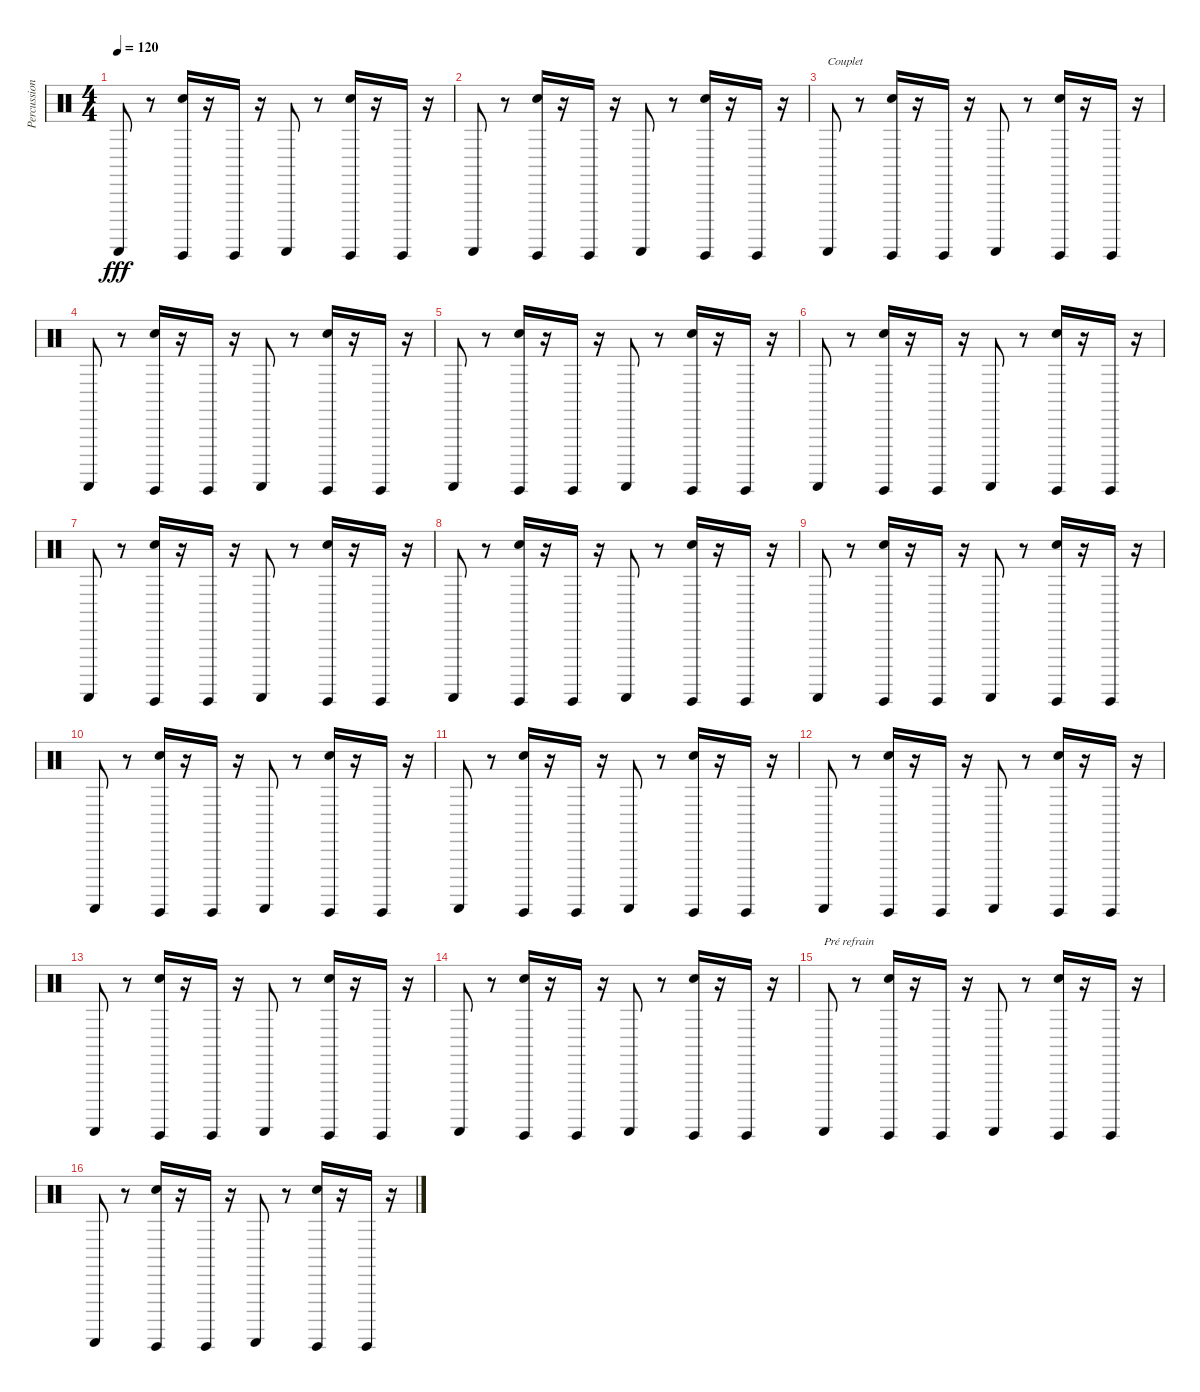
\track ("Percussions" "Percussion") {instrument percussion}
\staff {score}
\articulation defaults
\ts (4 4)
\tempo 120
\clef neutral
\ks c "Guiro (scrap-return)".8{dy fff}
r.8 ("Guiro (hit)" "Hand Clap (hit)").16 r.16 "Guiro (hit)".16 r.16 "Guiro (scrap-return)".8 r.8 ("Guiro (hit)" "Hand Clap (hit)").16 r.16 "Guiro (hit)".16 r.16 |
"Guiro (scrap-return)".8 r.8 ("Guiro (hit)" "Hand Clap (hit)").16 r.16 "Guiro (hit)".16 r.16 "Guiro (scrap-return)".8 r.8 ("Guiro (hit)" "Hand Clap (hit)").16 r.16 "Guiro (hit)".16 r.16 |
"Guiro (scrap-return)".8{txt "Couplet"} r.8 ("Guiro (hit)" "Hand Clap (hit)").16 r.16 "Guiro (hit)".16 r.16 "Guiro (scrap-return)".8 r.8 ("Guiro (hit)" "Hand Clap (hit)").16 r.16 "Guiro (hit)".16 r.16 |
"Guiro (scrap-return)".8 r.8 ("Guiro (hit)" "Hand Clap (hit)").16 r.16 "Guiro (hit)".16 r.16 "Guiro (scrap-return)".8 r.8 ("Guiro (hit)" "Hand Clap (hit)").16 r.16 "Guiro (hit)".16 r.16 |
"Guiro (scrap-return)".8 r.8 ("Guiro (hit)" "Hand Clap (hit)").16 r.16 "Guiro (hit)".16 r.16 "Guiro (scrap-return)".8 r.8 ("Guiro (hit)" "Hand Clap (hit)").16 r.16 "Guiro (hit)".16 r.16 |
"Guiro (scrap-return)".8 r.8 ("Guiro (hit)" "Hand Clap (hit)").16 r.16 "Guiro (hit)".16 r.16 "Guiro (scrap-return)".8 r.8 ("Guiro (hit)" "Hand Clap (hit)").16 r.16 "Guiro (hit)".16 r.16 |
"Guiro (scrap-return)".8 r.8 ("Guiro (hit)" "Hand Clap (hit)").16 r.16 "Guiro (hit)".16 r.16 "Guiro (scrap-return)".8 r.8 ("Guiro (hit)" "Hand Clap (hit)").16 r.16 "Guiro (hit)".16 r.16 |
"Guiro (scrap-return)".8 r.8 ("Guiro (hit)" "Hand Clap (hit)").16 r.16 "Guiro (hit)".16 r.16 "Guiro (scrap-return)".8 r.8 ("Guiro (hit)" "Hand Clap (hit)").16 r.16 "Guiro (hit)".16 r.16 |
"Guiro (scrap-return)".8 r.8 ("Guiro (hit)" "Hand Clap (hit)").16 r.16 "Guiro (hit)".16 r.16 "Guiro (scrap-return)".8 r.8 ("Guiro (hit)" "Hand Clap (hit)").16 r.16 "Guiro (hit)".16 r.16 |
"Guiro (scrap-return)".8 r.8 ("Guiro (hit)" "Hand Clap (hit)").16 r.16 "Guiro (hit)".16 r.16 "Guiro (scrap-return)".8 r.8 ("Guiro (hit)" "Hand Clap (hit)").16 r.16 "Guiro (hit)".16 r.16 |
"Guiro (scrap-return)".8 r.8 ("Guiro (hit)" "Hand Clap (hit)").16 r.16 "Guiro (hit)".16 r.16 "Guiro (scrap-return)".8 r.8 ("Guiro (hit)" "Hand Clap (hit)").16 r.16 "Guiro (hit)".16 r.16 |
"Guiro (scrap-return)".8 r.8 ("Guiro (hit)" "Hand Clap (hit)").16 r.16 "Guiro (hit)".16 r.16 "Guiro (scrap-return)".8 r.8 ("Guiro (hit)" "Hand Clap (hit)").16 r.16 "Guiro (hit)".16 r.16 |
"Guiro (scrap-return)".8 r.8 ("Guiro (hit)" "Hand Clap (hit)").16 r.16 "Guiro (hit)".16 r.16 "Guiro (scrap-return)".8 r.8 ("Guiro (hit)" "Hand Clap (hit)").16 r.16 "Guiro (hit)".16 r.16 |
"Guiro (scrap-return)".8 r.8 ("Guiro (hit)" "Hand Clap (hit)").16 r.16 "Guiro (hit)".16 r.16 "Guiro (scrap-return)".8 r.8 ("Guiro (hit)" "Hand Clap (hit)").16 r.16 "Guiro (hit)".16 r.16 |
"Guiro (scrap-return)".8{txt "Pré refrain"} r.8 ("Guiro (hit)" "Hand Clap (hit)").16 r.16 "Guiro (hit)".16 r.16 "Guiro (scrap-return)".8 r.8 ("Guiro (hit)" "Hand Clap (hit)").16 r.16 "Guiro (hit)".16 r.16 |
"Guiro (scrap-return)".8 r.8 ("Guiro (hit)" "Hand Clap (hit)").16 r.16 "Guiro (hit)".16 r.16 "Guiro (scrap-return)".8 r.8 ("Guiro (hit)" "Hand Clap (hit)").16 r.16 "Guiro (hit)".16 r.16
